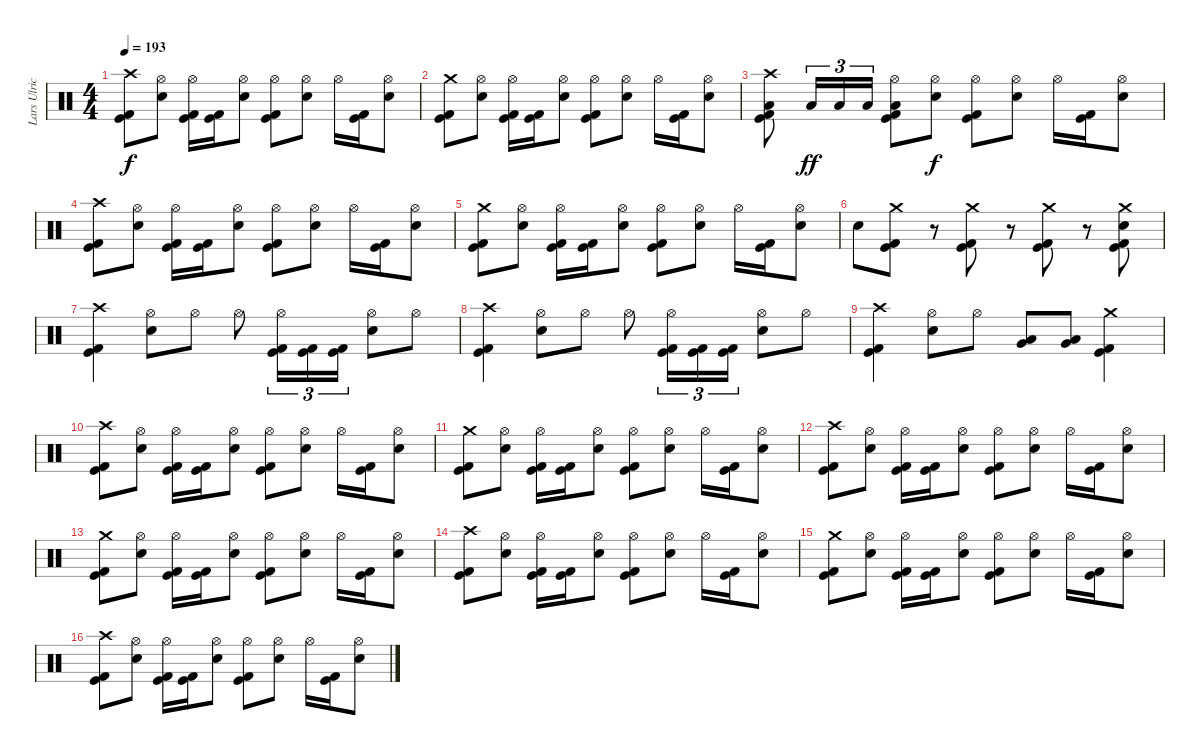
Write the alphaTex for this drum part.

\track ("Lars Ulrich" "Lars Ulric") {instrument percussion}
\staff {score}
\articulation defaults
\ts (4 4)
\tempo 193
\clef neutral
\ks c
("Crash high (hit)" "Kick (hit) 2" "Kick (hit)").8{dy f} ("Hi-Hat (open)" "Electric Snare (hit)").8 ("Hi-Hat (open)" "Kick (hit) 2" "Kick (hit)").16 ("Kick (hit) 2" "Kick (hit)").16 ("Hi-Hat (open)" "Electric Snare (hit)").8 ("Hi-Hat (open)" "Kick (hit) 2" "Kick (hit)").8 ("Hi-Hat (open)" "Electric Snare (hit)").8 "Hi-Hat (open)".16 ("Kick (hit) 2" "Kick (hit)").16 ("Hi-Hat (open)" "Electric Snare (hit)").8 |
("Crash medium (hit)" "Kick (hit) 2" "Kick (hit)").8 ("Hi-Hat (open)" "Electric Snare (hit)").8 ("Hi-Hat (open)" "Kick (hit) 2" "Kick (hit)").16 ("Kick (hit) 2" "Kick (hit)").16 ("Hi-Hat (open)" "Electric Snare (hit)").8 ("Hi-Hat (open)" "Kick (hit) 2" "Kick (hit)").8 ("Hi-Hat (open)" "Electric Snare (hit)").8 "Hi-Hat (open)".16 ("Kick (hit) 2" "Kick (hit)").16 ("Hi-Hat (open)" "Electric Snare (hit)").8 |
("Crash high (hit)" "Low Tom (hit)" "Kick (hit) 2" "Kick (hit)").8 "Low Tom (hit)".16{tu (3 2) dy ff} "Low Tom (hit)".16{tu (3 2)} "Low Tom (hit)".16{tu (3 2)} ("Hi-Hat (open)" "Low Tom (hit)" "Kick (hit) 2" "Kick (hit)").8 ("Hi-Hat (open)" "Electric Snare (hit)").8{dy f} ("Hi-Hat (open)" "Kick (hit) 2" "Kick (hit)").8 ("Hi-Hat (open)" "Electric Snare (hit)").8 "Hi-Hat (open)".16 ("Kick (hit) 2" "Kick (hit)").16 ("Hi-Hat (open)" "Electric Snare (hit)").8 |
("Crash high (hit)" "Kick (hit) 2" "Kick (hit)").8 ("Hi-Hat (open)" "Electric Snare (hit)").8 ("Hi-Hat (open)" "Kick (hit) 2" "Kick (hit)").16 ("Kick (hit) 2" "Kick (hit)").16 ("Hi-Hat (open)" "Electric Snare (hit)").8 ("Hi-Hat (open)" "Kick (hit) 2" "Kick (hit)").8 ("Hi-Hat (open)" "Electric Snare (hit)").8 "Hi-Hat (open)".16 ("Kick (hit) 2" "Kick (hit)").16 ("Hi-Hat (open)" "Electric Snare (hit)").8 |
("Crash medium (hit)" "Kick (hit) 2" "Kick (hit)").8 ("Hi-Hat (open)" "Electric Snare (hit)").8 ("Hi-Hat (open)" "Kick (hit) 2" "Kick (hit)").16 ("Kick (hit) 2" "Kick (hit)").16 ("Hi-Hat (open)" "Electric Snare (hit)").8 ("Hi-Hat (open)" "Kick (hit) 2" "Kick (hit)").8 ("Hi-Hat (open)" "Electric Snare (hit)").8 "Hi-Hat (open)".16 ("Kick (hit) 2" "Kick (hit)").16 ("Hi-Hat (open)" "Electric Snare (hit)").8 |
"Electric Snare (hit)".8 ("Crash medium (hit)" "Kick (hit) 2" "Kick (hit)").8 r.8 ("Crash medium (hit)" "Kick (hit)" "Kick (hit) 2").8 r.8 ("Crash medium (hit)" "Kick (hit)" "Kick (hit) 2").8 r.8 ("Crash medium (hit)" "Electric Snare (hit)" "Kick (hit)" "Kick (hit) 2").8 |
("Crash high (hit)" "Kick (hit) 2" "Kick (hit)").4 ("Hi-Hat (open)" "Electric Snare (hit)").8 "Hi-Hat (open)".8 "Hi-Hat (open)".8 ("Hi-Hat (open)" "Kick (hit) 2" "Kick (hit)").16{tu (3 2)} ("Kick (hit) 2" "Kick (hit)").16{tu (3 2)} ("Kick (hit) 2" "Kick (hit)").16{tu (3 2)} ("Hi-Hat (open)" "Electric Snare (hit)").8 "Hi-Hat (open)".8 |
("Crash high (hit)" "Kick (hit) 2" "Kick (hit)").4 ("Hi-Hat (open)" "Electric Snare (hit)").8 "Hi-Hat (open)".8 "Hi-Hat (open)".8 ("Hi-Hat (open)" "Kick (hit) 2" "Kick (hit)").16{tu (3 2)} ("Kick (hit) 2" "Kick (hit)").16{tu (3 2)} ("Kick (hit) 2" "Kick (hit)").16{tu (3 2)} ("Hi-Hat (open)" "Electric Snare (hit)").8 "Hi-Hat (open)".8 |
("Crash high (hit)" "Kick (hit) 2" "Kick (hit)").4 ("Hi-Hat (open)" "Electric Snare (hit)").8 "Hi-Hat (open)".8 ("Low Tom (hit)" "Very Low Tom (hit)").8 ("Low Tom (hit)" "Very Low Tom (hit)").8 ("Crash medium (hit)" "Kick (hit) 2" "Kick (hit)").4 |
("Crash high (hit)" "Kick (hit) 2" "Kick (hit)").8 ("Hi-Hat (open)" "Electric Snare (hit)").8 ("Hi-Hat (open)" "Kick (hit) 2" "Kick (hit)").16 ("Kick (hit) 2" "Kick (hit)").16 ("Hi-Hat (open)" "Electric Snare (hit)").8 ("Hi-Hat (open)" "Kick (hit) 2" "Kick (hit)").8 ("Hi-Hat (open)" "Electric Snare (hit)").8 "Hi-Hat (open)".16 ("Kick (hit) 2" "Kick (hit)").16 ("Hi-Hat (open)" "Electric Snare (hit)").8 |
("Crash medium (hit)" "Kick (hit) 2" "Kick (hit)").8 ("Hi-Hat (open)" "Electric Snare (hit)").8 ("Hi-Hat (open)" "Kick (hit) 2" "Kick (hit)").16 ("Kick (hit) 2" "Kick (hit)").16 ("Hi-Hat (open)" "Electric Snare (hit)").8 ("Hi-Hat (open)" "Kick (hit) 2" "Kick (hit)").8 ("Hi-Hat (open)" "Electric Snare (hit)").8 "Hi-Hat (open)".16 ("Kick (hit) 2" "Kick (hit)").16 ("Hi-Hat (open)" "Electric Snare (hit)").8 |
("Crash high (hit)" "Kick (hit) 2" "Kick (hit)").8 ("Hi-Hat (open)" "Electric Snare (hit)").8 ("Hi-Hat (open)" "Kick (hit) 2" "Kick (hit)").16 ("Kick (hit) 2" "Kick (hit)").16 ("Hi-Hat (open)" "Electric Snare (hit)").8 ("Hi-Hat (open)" "Kick (hit) 2" "Kick (hit)").8 ("Hi-Hat (open)" "Electric Snare (hit)").8 "Hi-Hat (open)".16 ("Kick (hit) 2" "Kick (hit)").16 ("Hi-Hat (open)" "Electric Snare (hit)").8 |
("Crash medium (hit)" "Kick (hit) 2" "Kick (hit)").8 ("Hi-Hat (open)" "Electric Snare (hit)").8 ("Hi-Hat (open)" "Kick (hit) 2" "Kick (hit)").16 ("Kick (hit) 2" "Kick (hit)").16 ("Hi-Hat (open)" "Electric Snare (hit)").8 ("Hi-Hat (open)" "Kick (hit) 2" "Kick (hit)").8 ("Hi-Hat (open)" "Electric Snare (hit)").8 "Hi-Hat (open)".16 ("Kick (hit) 2" "Kick (hit)").16 ("Hi-Hat (open)" "Electric Snare (hit)").8 |
("Crash high (hit)" "Kick (hit) 2" "Kick (hit)").8 ("Hi-Hat (open)" "Electric Snare (hit)").8 ("Hi-Hat (open)" "Kick (hit) 2" "Kick (hit)").16 ("Kick (hit) 2" "Kick (hit)").16 ("Hi-Hat (open)" "Electric Snare (hit)").8 ("Hi-Hat (open)" "Kick (hit) 2" "Kick (hit)").8 ("Hi-Hat (open)" "Electric Snare (hit)").8 "Hi-Hat (open)".16 ("Kick (hit) 2" "Kick (hit)").16 ("Hi-Hat (open)" "Electric Snare (hit)").8 |
("Crash medium (hit)" "Kick (hit) 2" "Kick (hit)").8 ("Hi-Hat (open)" "Electric Snare (hit)").8 ("Hi-Hat (open)" "Kick (hit) 2" "Kick (hit)").16 ("Kick (hit) 2" "Kick (hit)").16 ("Hi-Hat (open)" "Electric Snare (hit)").8 ("Hi-Hat (open)" "Kick (hit) 2" "Kick (hit)").8 ("Hi-Hat (open)" "Electric Snare (hit)").8 "Hi-Hat (open)".16 ("Kick (hit) 2" "Kick (hit)").16 ("Hi-Hat (open)" "Electric Snare (hit)").8 |
("Crash high (hit)" "Kick (hit) 2" "Kick (hit)").8 ("Hi-Hat (open)" "Electric Snare (hit)").8 ("Hi-Hat (open)" "Kick (hit) 2" "Kick (hit)").16 ("Kick (hit) 2" "Kick (hit)").16 ("Hi-Hat (open)" "Electric Snare (hit)").8 ("Hi-Hat (open)" "Kick (hit) 2" "Kick (hit)").8 ("Hi-Hat (open)" "Electric Snare (hit)").8 "Hi-Hat (open)".16 ("Kick (hit) 2" "Kick (hit)").16 ("Hi-Hat (open)" "Electric Snare (hit)").8
